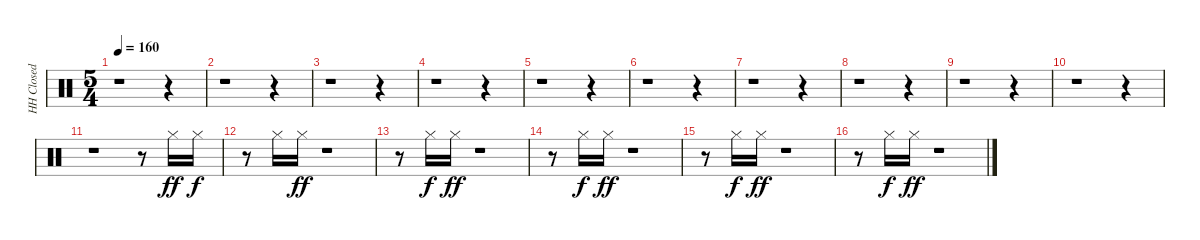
\track ("HH Closed" "HH Closed") {instrument percussion}
\staff {score}
\articulation defaults
\ts (5 4)
\tempo 160
\clef neutral
\ks c
r.1{dy f} r.4 |
r.1 r.4 |
r.1 r.4 |
r.1 r.4 |
r.1 r.4 |
r.1 r.4 |
r.1 r.4 |
r.1 r.4 |
r.1 r.4 |
r.1 r.4 |
r.1 r.8 "Hi-Hat (closed)".16{dy ff} "Hi-Hat (closed)".16{dy f} |
r.8 "Hi-Hat (closed)".16 "Hi-Hat (closed)".16{dy ff} r.1 |
r.8 "Hi-Hat (closed)".16{dy f} "Hi-Hat (closed)".16{dy ff} r.1 |
r.8 "Hi-Hat (closed)".16{dy f} "Hi-Hat (closed)".16{dy ff} r.1 |
r.8 "Hi-Hat (closed)".16{dy f} "Hi-Hat (closed)".16{dy ff} r.1 |
r.8 "Hi-Hat (closed)".16{dy f} "Hi-Hat (closed)".16{dy ff} r.1
